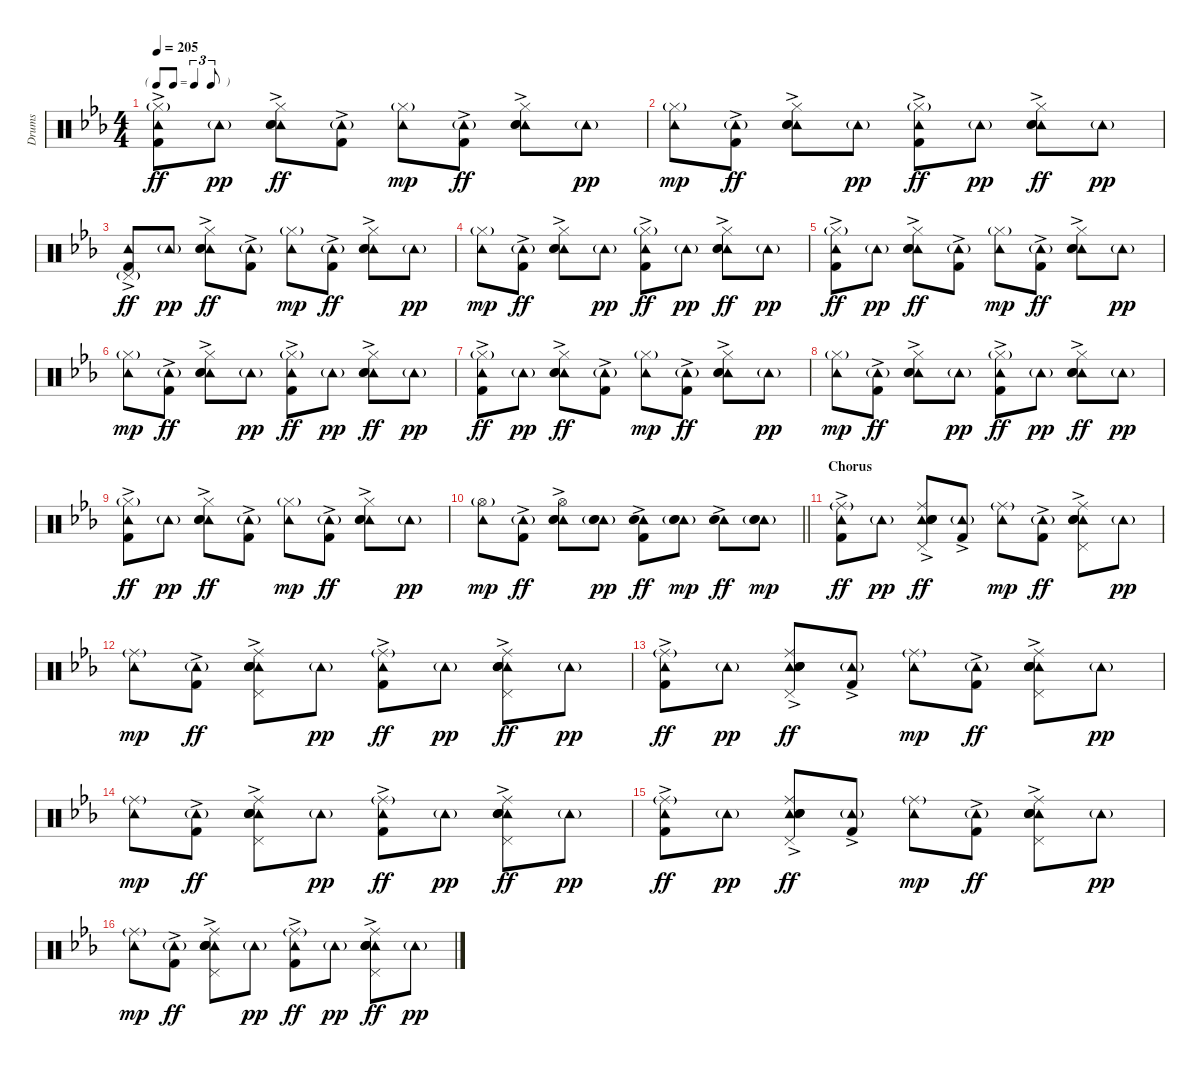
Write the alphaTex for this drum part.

\track ("Drums" "Drums") {instrument percussion}
\staff {score}
\articulation defaults
\ts (4 4)
\tf triplet8th
\tempo 205
\clef neutral
\ks eb
("Hi-Hat (closed)"{g} "Tambourine (hit)" "Kick (hit) 2"{ac}).8{dy ff} "Tambourine (hit)"{g}.8{dy pp} ("Hi-Hat (closed)" "Tambourine (hit)"{ac} "Electric Snare (hit)"{ac} "Snare (hit) 2").8{dy ff} ("Tambourine (hit)"{g} "Kick (hit) 2"{ac}).8 ("Hi-Hat (closed)"{g} "Tambourine (hit)").8{dy mp} ("Tambourine (hit)"{g} "Kick (hit) 2"{ac}).8{dy ff} ("Hi-Hat (closed)" "Tambourine (hit)"{ac} "Electric Snare (hit)"{ac} "Snare (hit) 2").8 "Tambourine (hit)"{g}.8{dy pp} |
("Hi-Hat (closed)"{g} "Tambourine (hit)").8{dy mp} ("Tambourine (hit)"{g} "Kick (hit) 2"{ac}).8{dy ff} ("Hi-Hat (closed)" "Tambourine (hit)"{ac} "Electric Snare (hit)"{ac} "Snare (hit) 2").8 "Tambourine (hit)"{g}.8{dy pp} ("Hi-Hat (closed)"{g} "Tambourine (hit)" "Kick (hit) 2"{ac}).8{dy ff} "Tambourine (hit)"{g}.8{dy pp} ("Hi-Hat (closed)" "Tambourine (hit)"{ac} "Electric Snare (hit)"{ac} "Snare (hit) 2").8{dy ff} "Tambourine (hit)"{g}.8{dy pp} |
("Pedal Hi-Hat (hit)"{g} "Tambourine (hit)" "Kick (hit) 2"{ac}).8{dy ff} "Tambourine (hit)"{g}.8{dy pp} ("Hi-Hat (closed)" "Tambourine (hit)"{ac} "Electric Snare (hit)"{ac} "Snare (hit) 2").8{dy ff} ("Tambourine (hit)"{g} "Kick (hit) 2"{ac}).8 ("Hi-Hat (closed)"{g} "Tambourine (hit)").8{dy mp} ("Tambourine (hit)"{g} "Kick (hit) 2"{ac}).8{dy ff} ("Hi-Hat (closed)" "Tambourine (hit)"{ac} "Electric Snare (hit)"{ac} "Snare (hit) 2").8 "Tambourine (hit)"{g}.8{dy pp} |
("Hi-Hat (closed)"{g} "Tambourine (hit)").8{dy mp} ("Tambourine (hit)"{g} "Kick (hit) 2"{ac}).8{dy ff} ("Hi-Hat (closed)" "Tambourine (hit)"{ac} "Electric Snare (hit)"{ac} "Snare (hit) 2").8 "Tambourine (hit)"{g}.8{dy pp} ("Hi-Hat (closed)"{g} "Tambourine (hit)" "Kick (hit) 2"{ac}).8{dy ff} "Tambourine (hit)"{g}.8{dy pp} ("Hi-Hat (closed)" "Tambourine (hit)"{ac} "Electric Snare (hit)"{ac} "Snare (hit) 2").8{dy ff} "Tambourine (hit)"{g}.8{dy pp} |
("Hi-Hat (closed)"{g} "Tambourine (hit)" "Kick (hit) 2"{ac}).8{dy ff} "Tambourine (hit)"{g}.8{dy pp} ("Hi-Hat (closed)" "Tambourine (hit)"{ac} "Electric Snare (hit)"{ac} "Snare (hit) 2").8{dy ff} ("Tambourine (hit)"{g} "Kick (hit) 2"{ac}).8 ("Hi-Hat (closed)"{g} "Tambourine (hit)").8{dy mp} ("Tambourine (hit)"{g} "Kick (hit) 2"{ac}).8{dy ff} ("Hi-Hat (closed)" "Tambourine (hit)"{ac} "Electric Snare (hit)"{ac} "Snare (hit) 2").8 "Tambourine (hit)"{g}.8{dy pp} |
("Hi-Hat (closed)"{g} "Tambourine (hit)").8{dy mp} ("Tambourine (hit)"{g} "Kick (hit) 2"{ac}).8{dy ff} ("Hi-Hat (closed)" "Tambourine (hit)"{ac} "Electric Snare (hit)"{ac} "Snare (hit) 2").8 "Tambourine (hit)"{g}.8{dy pp} ("Hi-Hat (closed)"{g} "Tambourine (hit)" "Kick (hit) 2"{ac}).8{dy ff} "Tambourine (hit)"{g}.8{dy pp} ("Hi-Hat (closed)" "Tambourine (hit)"{ac} "Electric Snare (hit)"{ac} "Snare (hit) 2").8{dy ff} "Tambourine (hit)"{g}.8{dy pp} |
("Hi-Hat (closed)"{g} "Tambourine (hit)" "Kick (hit) 2"{ac}).8{dy ff} "Tambourine (hit)"{g}.8{dy pp} ("Hi-Hat (closed)" "Tambourine (hit)"{ac} "Electric Snare (hit)"{ac} "Snare (hit) 2").8{dy ff} ("Tambourine (hit)"{g} "Kick (hit) 2"{ac}).8 ("Hi-Hat (closed)"{g} "Tambourine (hit)").8{dy mp} ("Tambourine (hit)"{g} "Kick (hit) 2"{ac}).8{dy ff} ("Hi-Hat (closed)" "Tambourine (hit)"{ac} "Electric Snare (hit)"{ac} "Snare (hit) 2").8 "Tambourine (hit)"{g}.8{dy pp} |
("Hi-Hat (closed)"{g} "Tambourine (hit)").8{dy mp} ("Tambourine (hit)"{g} "Kick (hit) 2"{ac}).8{dy ff} ("Hi-Hat (closed)" "Tambourine (hit)"{ac} "Electric Snare (hit)"{ac} "Snare (hit) 2").8 "Tambourine (hit)"{g}.8{dy pp} ("Hi-Hat (closed)"{g} "Tambourine (hit)" "Kick (hit) 2"{ac}).8{dy ff} "Tambourine (hit)"{g}.8{dy pp} ("Hi-Hat (closed)" "Tambourine (hit)"{ac} "Electric Snare (hit)"{ac} "Snare (hit) 2").8{dy ff} "Tambourine (hit)"{g}.8{dy pp} |
("Hi-Hat (closed)"{g} "Tambourine (hit)" "Kick (hit) 2"{ac}).8{dy ff} "Tambourine (hit)"{g}.8{dy pp} ("Hi-Hat (closed)" "Tambourine (hit)"{ac} "Electric Snare (hit)"{ac} "Snare (hit) 2").8{dy ff} ("Tambourine (hit)"{g} "Kick (hit) 2"{ac}).8 ("Hi-Hat (closed)"{g} "Tambourine (hit)").8{dy mp} ("Tambourine (hit)"{g} "Kick (hit) 2"{ac}).8{dy ff} ("Hi-Hat (closed)" "Tambourine (hit)"{ac} "Electric Snare (hit)"{ac} "Snare (hit) 2").8 "Tambourine (hit)"{g}.8{dy pp} |
\barLineRight lightlight
("Hi-Hat (open)"{g} "Tambourine (hit)").8{dy mp} ("Tambourine (hit)"{g} "Kick (hit) 2"{ac}).8{dy ff} ("Hi-Hat (open)" "Tambourine (hit)"{ac} "Electric Snare (hit)"{ac} "Snare (hit) 2").8 ("Tambourine (hit)"{g} "Electric Snare (hit)" "Snare (hit) 2").8{dy pp} ("Tambourine (hit)" "Electric Snare (hit)"{ac} "Snare (hit) 2" "Kick (hit) 2"{ac}).8{dy ff} ("Tambourine (hit)"{g} "Electric Snare (hit)"{g} "Snare (hit) 2").8{dy mp} ("Tambourine (hit)"{ac} "Electric Snare (hit)"{ac} "Snare (hit) 2").8{dy ff} ("Tambourine (hit)"{g} "Electric Snare (hit)"{g} "Snare (hit) 2").8{dy mp} |
\section ("" "Chorus")
("Ride (middle)"{g} "Tambourine (hit)" "Kick (hit) 2"{ac}).8{dy ff} "Tambourine (hit)"{g}.8{dy pp} ("Ride (middle)" "Tambourine (hit)"{ac} "Hand Clap (hit)" "Electric Snare (hit)"{ac} "Snare (hit) 2" "Pedal Hi-Hat (hit)").8{dy ff} ("Tambourine (hit)"{g} "Kick (hit) 2"{ac}).8 ("Ride (middle)"{g} "Tambourine (hit)").8{dy mp} ("Tambourine (hit)"{g} "Kick (hit) 2"{ac}).8{dy ff} ("Ride (middle)" "Tambourine (hit)"{ac} "Hand Clap (hit)" "Electric Snare (hit)"{ac} "Snare (hit) 2" "Pedal Hi-Hat (hit)").8 "Tambourine (hit)"{g}.8{dy pp} |
("Ride (middle)"{g} "Tambourine (hit)").8{dy mp} ("Tambourine (hit)"{g} "Kick (hit) 2"{ac}).8{dy ff} ("Ride (middle)" "Tambourine (hit)"{ac} "Hand Clap (hit)" "Electric Snare (hit)"{ac} "Snare (hit) 2" "Pedal Hi-Hat (hit)").8 "Tambourine (hit)"{g}.8{dy pp} ("Ride (middle)"{g} "Tambourine (hit)" "Kick (hit) 2"{ac}).8{dy ff} "Tambourine (hit)"{g}.8{dy pp} ("Ride (middle)" "Tambourine (hit)"{ac} "Hand Clap (hit)" "Electric Snare (hit)"{ac} "Snare (hit) 2" "Pedal Hi-Hat (hit)").8{dy ff} "Tambourine (hit)"{g}.8{dy pp} |
("Ride (middle)"{g} "Tambourine (hit)" "Kick (hit) 2"{ac}).8{dy ff} "Tambourine (hit)"{g}.8{dy pp} ("Ride (middle)" "Tambourine (hit)"{ac} "Hand Clap (hit)" "Electric Snare (hit)"{ac} "Snare (hit) 2" "Pedal Hi-Hat (hit)").8{dy ff} ("Tambourine (hit)"{g} "Kick (hit) 2"{ac}).8 ("Ride (middle)"{g} "Tambourine (hit)").8{dy mp} ("Tambourine (hit)"{g} "Kick (hit) 2"{ac}).8{dy ff} ("Ride (middle)" "Tambourine (hit)"{ac} "Hand Clap (hit)" "Electric Snare (hit)"{ac} "Snare (hit) 2" "Pedal Hi-Hat (hit)").8 "Tambourine (hit)"{g}.8{dy pp} |
("Ride (middle)"{g} "Tambourine (hit)").8{dy mp} ("Tambourine (hit)"{g} "Kick (hit) 2"{ac}).8{dy ff} ("Ride (middle)" "Tambourine (hit)"{ac} "Hand Clap (hit)" "Electric Snare (hit)"{ac} "Snare (hit) 2" "Pedal Hi-Hat (hit)").8 "Tambourine (hit)"{g}.8{dy pp} ("Ride (middle)"{g} "Tambourine (hit)" "Kick (hit) 2"{ac}).8{dy ff} "Tambourine (hit)"{g}.8{dy pp} ("Ride (middle)" "Tambourine (hit)"{ac} "Hand Clap (hit)" "Electric Snare (hit)"{ac} "Snare (hit) 2" "Pedal Hi-Hat (hit)").8{dy ff} "Tambourine (hit)"{g}.8{dy pp} |
("Ride (middle)"{g} "Tambourine (hit)" "Kick (hit) 2"{ac}).8{dy ff} "Tambourine (hit)"{g}.8{dy pp} ("Ride (middle)" "Tambourine (hit)"{ac} "Hand Clap (hit)" "Electric Snare (hit)"{ac} "Snare (hit) 2" "Pedal Hi-Hat (hit)").8{dy ff} ("Tambourine (hit)"{g} "Kick (hit) 2"{ac}).8 ("Ride (middle)"{g} "Tambourine (hit)").8{dy mp} ("Tambourine (hit)"{g} "Kick (hit) 2"{ac}).8{dy ff} ("Ride (middle)" "Tambourine (hit)"{ac} "Hand Clap (hit)" "Electric Snare (hit)"{ac} "Snare (hit) 2" "Pedal Hi-Hat (hit)").8 "Tambourine (hit)"{g}.8{dy pp} |
("Ride (middle)"{g} "Tambourine (hit)").8{dy mp} ("Tambourine (hit)"{g} "Kick (hit) 2"{ac}).8{dy ff} ("Ride (middle)" "Tambourine (hit)"{ac} "Hand Clap (hit)" "Electric Snare (hit)"{ac} "Snare (hit) 2" "Pedal Hi-Hat (hit)").8 "Tambourine (hit)"{g}.8{dy pp} ("Ride (middle)"{g} "Tambourine (hit)" "Kick (hit) 2"{ac}).8{dy ff} "Tambourine (hit)"{g}.8{dy pp} ("Ride (middle)" "Tambourine (hit)"{ac} "Hand Clap (hit)" "Electric Snare (hit)"{ac} "Snare (hit) 2" "Pedal Hi-Hat (hit)").8{dy ff} "Tambourine (hit)"{g}.8{dy pp}
